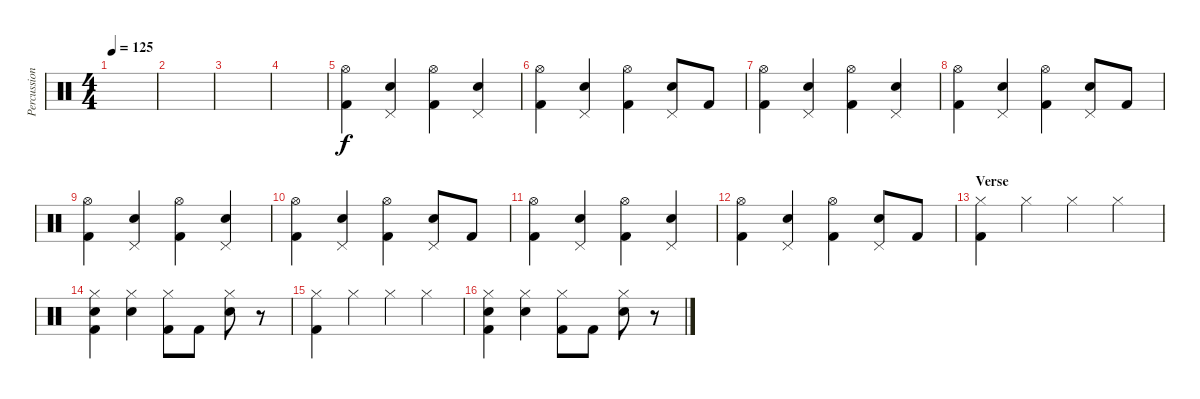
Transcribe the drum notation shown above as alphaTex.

\track ("Percussion" "Percussion") {instrument percussion}
\staff {score}
\articulation defaults
\ts (4 4)
\tempo 125
\clef neutral
\ks c
|
|
|
|
("Hi-Hat (open)" "Kick (hit) 2").4 ("Pedal Hi-Hat (hit)" "Electric Snare (hit)").4 ("Hi-Hat (open)" "Kick (hit) 2").4 ("Pedal Hi-Hat (hit)" "Electric Snare (hit)").4 |
("Hi-Hat (open)" "Kick (hit) 2").4 ("Pedal Hi-Hat (hit)" "Electric Snare (hit)").4 ("Hi-Hat (open)" "Kick (hit) 2").4 ("Pedal Hi-Hat (hit)" "Electric Snare (hit)").8 "Kick (hit) 2".8 |
("Hi-Hat (open)" "Kick (hit) 2").4 ("Pedal Hi-Hat (hit)" "Electric Snare (hit)").4 ("Hi-Hat (open)" "Kick (hit) 2").4 ("Pedal Hi-Hat (hit)" "Electric Snare (hit)").4 |
("Hi-Hat (open)" "Kick (hit) 2").4 ("Pedal Hi-Hat (hit)" "Electric Snare (hit)").4 ("Hi-Hat (open)" "Kick (hit) 2").4 ("Pedal Hi-Hat (hit)" "Electric Snare (hit)").8 "Kick (hit) 2".8 |
("Hi-Hat (open)" "Kick (hit) 2").4 ("Pedal Hi-Hat (hit)" "Electric Snare (hit)").4 ("Hi-Hat (open)" "Kick (hit) 2").4 ("Pedal Hi-Hat (hit)" "Electric Snare (hit)").4 |
("Hi-Hat (open)" "Kick (hit) 2").4 ("Pedal Hi-Hat (hit)" "Electric Snare (hit)").4 ("Hi-Hat (open)" "Kick (hit) 2").4 ("Pedal Hi-Hat (hit)" "Electric Snare (hit)").8 "Kick (hit) 2".8 |
("Hi-Hat (open)" "Kick (hit) 2").4 ("Pedal Hi-Hat (hit)" "Electric Snare (hit)").4 ("Hi-Hat (open)" "Kick (hit) 2").4 ("Pedal Hi-Hat (hit)" "Electric Snare (hit)").4 |
("Hi-Hat (open)" "Kick (hit) 2").4 ("Pedal Hi-Hat (hit)" "Electric Snare (hit)").4 ("Hi-Hat (open)" "Kick (hit) 2").4 ("Pedal Hi-Hat (hit)" "Electric Snare (hit)").8 "Kick (hit) 2".8 |
\section ("" "Verse")
("Hi-Hat (closed)" "Kick (hit) 2").4 "Hi-Hat (closed)".4 "Hi-Hat (closed)".4 "Hi-Hat (closed)".4 |
("Hi-Hat (closed)" "Electric Snare (hit)" "Kick (hit) 2").4 ("Hi-Hat (closed)" "Electric Snare (hit)").4 ("Hi-Hat (closed)" "Kick (hit) 2").8 "Kick (hit) 2".8 ("Hi-Hat (closed)" "Electric Snare (hit)").8 r.8 |
("Hi-Hat (closed)" "Kick (hit) 2").4 "Hi-Hat (closed)".4 "Hi-Hat (closed)".4 "Hi-Hat (closed)".4 |
("Hi-Hat (closed)" "Electric Snare (hit)" "Kick (hit) 2").4 ("Hi-Hat (closed)" "Electric Snare (hit)").4 ("Hi-Hat (closed)" "Kick (hit) 2").8 "Kick (hit) 2".8 ("Hi-Hat (closed)" "Electric Snare (hit)").8 r.8
